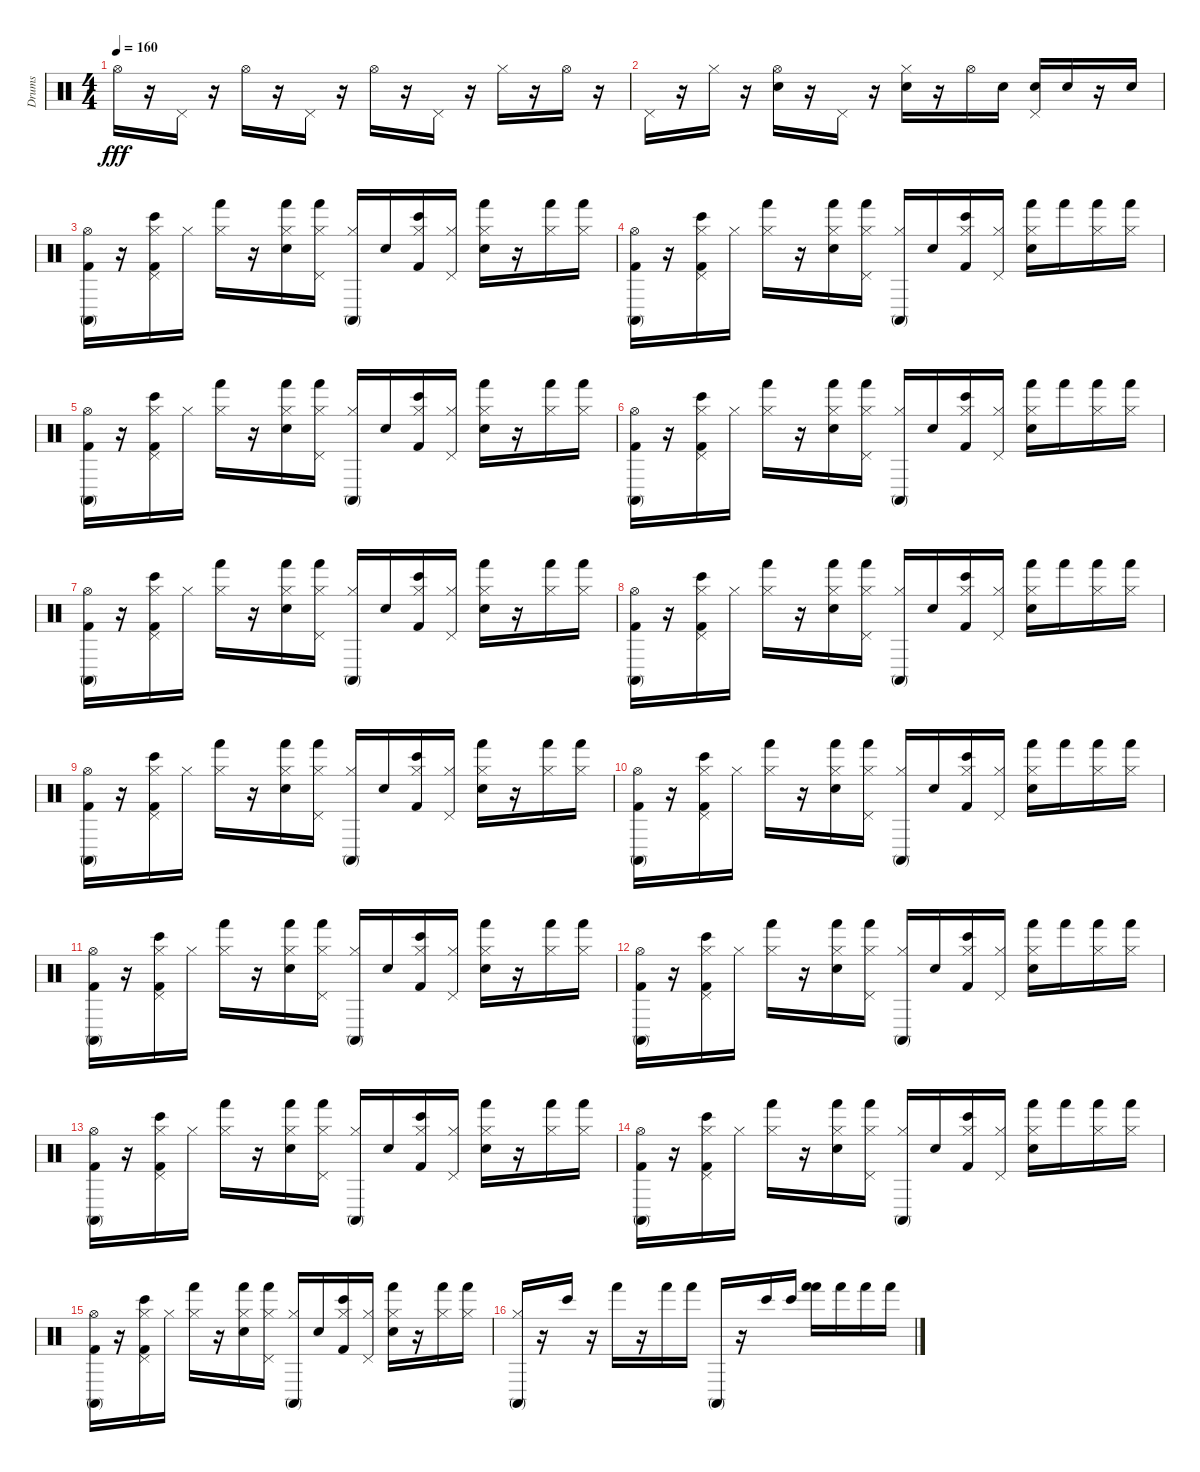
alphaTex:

\track ("Drums" "Drums") {instrument percussion}
\staff {score}
\articulation defaults
\ts (4 4)
\tempo 160
\clef neutral
\ks c "Hi-Hat (open)".16{dy fff}
r.16 "Pedal Hi-Hat (hit)".16 r.16 "Hi-Hat (open)".16 r.16 "Pedal Hi-Hat (hit)".16 r.16 "Hi-Hat (open)".16 r.16 "Pedal Hi-Hat (hit)".16 r.16 "Hi-Hat (closed)".16 r.16 "Hi-Hat (open)".16 r.16 |
"Pedal Hi-Hat (hit)".16 r.16 "Hi-Hat (closed)".16 r.16 ("Hi-Hat (open)" "Electric Snare (hit)").16 r.16 "Pedal Hi-Hat (hit)".16 r.16 ("Electric Snare (hit)" "Hi-Hat (closed)").16 r.16 "Hi-Hat (open)".16 "Electric Snare (hit)".16 ("Electric Snare (hit)" "Pedal Hi-Hat (hit)").16 "Electric Snare (hit)".16 r.16 "Electric Snare (hit)".16 |
("Conga high (mute)" "Kick (hit) 2" "Hi-Hat (open)").16 r.16 ("Bongo High (hit)" "Hi-Hat (closed)" "Pedal Hi-Hat (hit)" "Kick (hit) 2").16 "Hi-Hat (closed)".16 ("Hand (hit)" "Hi-Hat (closed)").16 r.16 ("Electric Snare (hit)" "Hi-Hat (closed)" "Hand (hit)").16 ("Hi-Hat (closed)" "Pedal Hi-Hat (hit)" "Hand (hit)").16 ("Conga high (mute)" "Hi-Hat (closed)").16 "Electric Snare (hit)".16 ("Bongo High (hit)" "Kick (hit) 2" "Hi-Hat (closed)").16 ("Hi-Hat (closed)" "Pedal Hi-Hat (hit)").16 ("Hi-Hat (closed)" "Hand (hit)" "Electric Snare (hit)").16 r.16 ("Hand (hit)" "Hi-Hat (closed)").16 ("Hi-Hat (closed)" "Hand (hit)").16 |
("Hi-Hat (open)" "Conga high (mute)" "Kick (hit) 2").16 r.16 ("Hi-Hat (closed)" "Pedal Hi-Hat (hit)" "Kick (hit) 2" "Bongo High (hit)").16 "Hi-Hat (closed)".16 ("Hand (hit)" "Hi-Hat (closed)").16 r.16 ("Electric Snare (hit)" "Hi-Hat (closed)" "Hand (hit)").16 ("Hi-Hat (closed)" "Pedal Hi-Hat (hit)" "Hand (hit)").16 ("Hi-Hat (closed)" "Conga high (mute)").16 "Electric Snare (hit)".16 ("Kick (hit) 2" "Hi-Hat (closed)" "Bongo High (hit)").16 ("Hi-Hat (closed)" "Pedal Hi-Hat (hit)").16 ("Hi-Hat (closed)" "Electric Snare (hit)" "Hand (hit)").16 "Hand (hit)".16 ("Hand (hit)" "Hi-Hat (closed)").16 ("Hi-Hat (closed)" "Hand (hit)").16 |
("Hi-Hat (open)" "Kick (hit) 2" "Conga high (mute)").16 r.16 ("Hi-Hat (closed)" "Kick (hit) 2" "Pedal Hi-Hat (hit)" "Bongo High (hit)").16 "Hi-Hat (closed)".16 ("Hi-Hat (closed)" "Hand (hit)").16 r.16 ("Electric Snare (hit)" "Hi-Hat (closed)" "Hand (hit)").16 ("Pedal Hi-Hat (hit)" "Hand (hit)" "Hi-Hat (closed)").16 ("Hi-Hat (closed)" "Conga high (mute)").16 "Electric Snare (hit)".16 ("Bongo High (hit)" "Hi-Hat (closed)" "Kick (hit) 2").16 ("Hi-Hat (closed)" "Pedal Hi-Hat (hit)").16 ("Hand (hit)" "Electric Snare (hit)" "Hi-Hat (closed)").16 r.16 ("Hi-Hat (closed)" "Hand (hit)").16 ("Hi-Hat (closed)" "Hand (hit)").16 |
("Conga high (mute)" "Kick (hit) 2" "Hi-Hat (open)").16 r.16 ("Pedal Hi-Hat (hit)" "Hi-Hat (closed)" "Kick (hit) 2" "Bongo High (hit)").16 "Hi-Hat (closed)".16 ("Hi-Hat (closed)" "Hand (hit)").16 r.16 ("Electric Snare (hit)" "Hand (hit)" "Hi-Hat (closed)").16 ("Hi-Hat (closed)" "Pedal Hi-Hat (hit)" "Hand (hit)").16 ("Conga high (mute)" "Hi-Hat (closed)").16 "Electric Snare (hit)".16 ("Bongo High (hit)" "Kick (hit) 2" "Hi-Hat (closed)").16 ("Hi-Hat (closed)" "Pedal Hi-Hat (hit)").16 ("Hi-Hat (closed)" "Electric Snare (hit)" "Hand (hit)").16 "Hand (hit)".16 ("Hand (hit)" "Hi-Hat (closed)").16 ("Hand (hit)" "Hi-Hat (closed)").16 |
("Kick (hit) 2" "Conga high (mute)" "Hi-Hat (open)").16 r.16 ("Hi-Hat (closed)" "Bongo High (hit)" "Kick (hit) 2" "Pedal Hi-Hat (hit)").16 "Hi-Hat (closed)".16 ("Hi-Hat (closed)" "Hand (hit)").16 r.16 ("Electric Snare (hit)" "Hand (hit)" "Hi-Hat (closed)").16 ("Pedal Hi-Hat (hit)" "Hand (hit)" "Hi-Hat (closed)").16 ("Hi-Hat (closed)" "Conga high (mute)").16 "Electric Snare (hit)".16 ("Kick (hit) 2" "Bongo High (hit)" "Hi-Hat (closed)").16 ("Hi-Hat (closed)" "Pedal Hi-Hat (hit)").16 ("Hand (hit)" "Electric Snare (hit)" "Hi-Hat (closed)").16 r.16 ("Hi-Hat (closed)" "Hand (hit)").16 ("Hand (hit)" "Hi-Hat (closed)").16 |
("Kick (hit) 2" "Hi-Hat (open)" "Conga high (mute)").16 r.16 ("Kick (hit) 2" "Pedal Hi-Hat (hit)" "Hi-Hat (closed)" "Bongo High (hit)").16 "Hi-Hat (closed)".16 ("Hi-Hat (closed)" "Hand (hit)").16 r.16 ("Hand (hit)" "Electric Snare (hit)" "Hi-Hat (closed)").16 ("Pedal Hi-Hat (hit)" "Hi-Hat (closed)" "Hand (hit)").16 ("Conga high (mute)" "Hi-Hat (closed)").16 "Electric Snare (hit)".16 ("Bongo High (hit)" "Hi-Hat (closed)" "Kick (hit) 2").16 ("Hi-Hat (closed)" "Pedal Hi-Hat (hit)").16 ("Hand (hit)" "Electric Snare (hit)" "Hi-Hat (closed)").16 "Hand (hit)".16 ("Hi-Hat (closed)" "Hand (hit)").16 ("Hi-Hat (closed)" "Hand (hit)").16 |
("Hi-Hat (open)" "Kick (hit) 2" "Conga high (mute)").16 r.16 ("Pedal Hi-Hat (hit)" "Hi-Hat (closed)" "Kick (hit) 2" "Bongo High (hit)").16 "Hi-Hat (closed)".16 ("Hand (hit)" "Hi-Hat (closed)").16 r.16 ("Electric Snare (hit)" "Hand (hit)" "Hi-Hat (closed)").16 ("Pedal Hi-Hat (hit)" "Hand (hit)" "Hi-Hat (closed)").16 ("Hi-Hat (closed)" "Conga high (mute)").16 "Electric Snare (hit)".16 ("Hi-Hat (closed)" "Kick (hit) 2" "Bongo High (hit)").16 ("Pedal Hi-Hat (hit)" "Hi-Hat (closed)").16 ("Electric Snare (hit)" "Hi-Hat (closed)" "Hand (hit)").16 r.16 ("Hi-Hat (closed)" "Hand (hit)").16 ("Hi-Hat (closed)" "Hand (hit)").16 |
("Kick (hit) 2" "Hi-Hat (open)" "Conga high (mute)").16 r.16 ("Kick (hit) 2" "Hi-Hat (closed)" "Pedal Hi-Hat (hit)" "Bongo High (hit)").16 "Hi-Hat (closed)".16 ("Hand (hit)" "Hi-Hat (closed)").16 r.16 ("Hand (hit)" "Hi-Hat (closed)" "Electric Snare (hit)").16 ("Hi-Hat (closed)" "Hand (hit)" "Pedal Hi-Hat (hit)").16 ("Hi-Hat (closed)" "Conga high (mute)").16 "Electric Snare (hit)".16 ("Hi-Hat (closed)" "Kick (hit) 2" "Bongo High (hit)").16 ("Pedal Hi-Hat (hit)" "Hi-Hat (closed)").16 ("Electric Snare (hit)" "Hand (hit)" "Hi-Hat (closed)").16 "Hand (hit)".16 ("Hi-Hat (closed)" "Hand (hit)").16 ("Hi-Hat (closed)" "Hand (hit)").16 |
("Kick (hit) 2" "Conga high (mute)" "Hi-Hat (open)").16 r.16 ("Pedal Hi-Hat (hit)" "Hi-Hat (closed)" "Kick (hit) 2" "Bongo High (hit)").16 "Hi-Hat (closed)".16 ("Hi-Hat (closed)" "Hand (hit)").16 r.16 ("Electric Snare (hit)" "Hand (hit)" "Hi-Hat (closed)").16 ("Hand (hit)" "Hi-Hat (closed)" "Pedal Hi-Hat (hit)").16 ("Conga high (mute)" "Hi-Hat (closed)").16 "Electric Snare (hit)".16 ("Hi-Hat (closed)" "Bongo High (hit)" "Kick (hit) 2").16 ("Hi-Hat (closed)" "Pedal Hi-Hat (hit)").16 ("Hi-Hat (closed)" "Hand (hit)" "Electric Snare (hit)").16 r.16 ("Hi-Hat (closed)" "Hand (hit)").16 ("Hand (hit)" "Hi-Hat (closed)").16 |
("Conga high (mute)" "Kick (hit) 2" "Hi-Hat (open)").16 r.16 ("Hi-Hat (closed)" "Bongo High (hit)" "Pedal Hi-Hat (hit)" "Kick (hit) 2").16 "Hi-Hat (closed)".16 ("Hand (hit)" "Hi-Hat (closed)").16 r.16 ("Electric Snare (hit)" "Hand (hit)" "Hi-Hat (closed)").16 ("Hand (hit)" "Pedal Hi-Hat (hit)" "Hi-Hat (closed)").16 ("Conga high (mute)" "Hi-Hat (closed)").16 "Electric Snare (hit)".16 ("Bongo High (hit)" "Kick (hit) 2" "Hi-Hat (closed)").16 ("Pedal Hi-Hat (hit)" "Hi-Hat (closed)").16 ("Hi-Hat (closed)" "Electric Snare (hit)" "Hand (hit)").16 "Hand (hit)".16 ("Hand (hit)" "Hi-Hat (closed)").16 ("Hand (hit)" "Hi-Hat (closed)").16 |
("Conga high (mute)" "Kick (hit) 2" "Hi-Hat (open)").16 r.16 ("Pedal Hi-Hat (hit)" "Kick (hit) 2" "Hi-Hat (closed)" "Bongo High (hit)").16 "Hi-Hat (closed)".16 ("Hi-Hat (closed)" "Hand (hit)").16 r.16 ("Hi-Hat (closed)" "Electric Snare (hit)" "Hand (hit)").16 ("Pedal Hi-Hat (hit)" "Hand (hit)" "Hi-Hat (closed)").16 ("Hi-Hat (closed)" "Conga high (mute)").16 "Electric Snare (hit)".16 ("Kick (hit) 2" "Bongo High (hit)" "Hi-Hat (closed)").16 ("Hi-Hat (closed)" "Pedal Hi-Hat (hit)").16 ("Hi-Hat (closed)" "Electric Snare (hit)" "Hand (hit)").16 r.16 ("Hand (hit)" "Hi-Hat (closed)").16 ("Hand (hit)" "Hi-Hat (closed)").16 |
("Conga high (mute)" "Hi-Hat (open)" "Kick (hit) 2").16 r.16 ("Bongo High (hit)" "Pedal Hi-Hat (hit)" "Hi-Hat (closed)" "Kick (hit) 2").16 "Hi-Hat (closed)".16 ("Hi-Hat (closed)" "Hand (hit)").16 r.16 ("Hi-Hat (closed)" "Electric Snare (hit)" "Hand (hit)").16 ("Hi-Hat (closed)" "Pedal Hi-Hat (hit)" "Hand (hit)").16 ("Hi-Hat (closed)" "Conga high (mute)").16 "Electric Snare (hit)".16 ("Hi-Hat (closed)" "Bongo High (hit)" "Kick (hit) 2").16 ("Hi-Hat (closed)" "Pedal Hi-Hat (hit)").16 ("Hand (hit)" "Electric Snare (hit)" "Hi-Hat (closed)").16 "Hand (hit)".16 ("Hand (hit)" "Hi-Hat (closed)").16 ("Hand (hit)" "Hi-Hat (closed)").16 |
("Hi-Hat (open)" "Kick (hit) 2" "Conga high (mute)").16 r.16 ("Kick (hit) 2" "Hi-Hat (closed)" "Bongo High (hit)" "Pedal Hi-Hat (hit)").16 "Hi-Hat (closed)".16 ("Hi-Hat (closed)" "Hand (hit)").16 r.16 ("Electric Snare (hit)" "Hand (hit)" "Hi-Hat (closed)").16 ("Pedal Hi-Hat (hit)" "Hi-Hat (closed)" "Hand (hit)").16 ("Hi-Hat (closed)" "Conga high (mute)").16 "Electric Snare (hit)".16 ("Kick (hit) 2" "Bongo High (hit)" "Hi-Hat (closed)").16 ("Hi-Hat (closed)" "Pedal Hi-Hat (hit)").16 ("Electric Snare (hit)" "Hand (hit)" "Hi-Hat (closed)").16 r.16 ("Hand (hit)" "Hi-Hat (closed)").16 ("Hi-Hat (closed)" "Hand (hit)").16 |
("Conga high (mute)" "Hi-Hat (closed)").16 r.16 "Bongo High (hit)".16 r.16 "Hand (hit)".16 r.16 "Hand (hit)".16 "Hand (hit)".16 "Conga high (mute)".16 r.16 "Bongo High (hit)".16 "Bongo High (hit)".16 ("Hand (hit)" "Hand (hit)").16 "Hand (hit)".16 "Hand (hit)".16 "Hand (hit)".16
